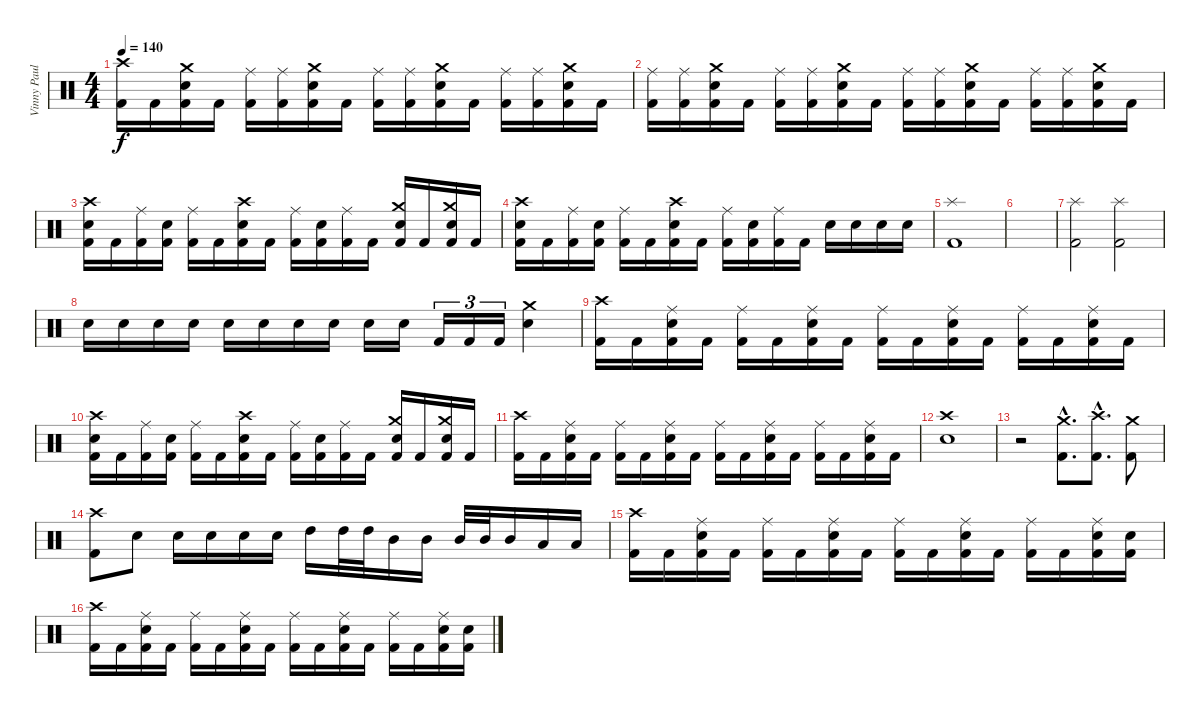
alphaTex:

\track ("Vinny Paul" "Vinny Paul") {instrument percussion}
\staff {score}
\articulation defaults
\ts (4 4)
\tempo 140
\clef neutral
\ks c
("Crash high (hit)" "Kick (hit) 2").16{dy f} "Kick (hit) 2".16 ("Crash medium (hit)" "Snare (hit) 2" "Kick (hit) 2").16 "Kick (hit) 2".16 ("Ride (middle)" "Kick (hit) 2").16 ("Ride (middle)" "Kick (hit) 2").16 ("Crash medium (hit)" "Snare (hit) 2" "Kick (hit) 2").16 "Kick (hit) 2".16 ("Ride (middle)" "Kick (hit) 2").16 ("Ride (middle)" "Kick (hit) 2").16 ("Crash medium (hit)" "Snare (hit) 2" "Kick (hit) 2").16 "Kick (hit) 2".16 ("Ride (middle)" "Kick (hit) 2").16 ("Ride (middle)" "Kick (hit) 2").16 ("Crash medium (hit)" "Snare (hit) 2" "Kick (hit) 2").16 "Kick (hit) 2".16 |
("Ride (middle)" "Kick (hit) 2").16 ("Ride (middle)" "Kick (hit) 2").16 ("Crash medium (hit)" "Snare (hit) 2" "Kick (hit) 2").16 "Kick (hit) 2".16 ("Ride (middle)" "Kick (hit) 2").16 ("Ride (middle)" "Kick (hit) 2").16 ("Crash medium (hit)" "Snare (hit) 2" "Kick (hit) 2").16 "Kick (hit) 2".16 ("Ride (middle)" "Kick (hit) 2").16 ("Ride (middle)" "Kick (hit) 2").16 ("Crash medium (hit)" "Snare (hit) 2" "Kick (hit) 2").16 "Kick (hit) 2".16 ("Ride (middle)" "Kick (hit) 2").16 ("Ride (middle)" "Kick (hit) 2").16 ("Crash medium (hit)" "Snare (hit) 2" "Kick (hit) 2").16 "Kick (hit) 2".16 |
("Crash high (hit)" "Snare (hit) 2" "Kick (hit) 2").16 "Kick (hit) 2".16 ("Ride (middle)" "Kick (hit) 2").16 ("Snare (hit) 2" "Kick (hit) 2").16 ("Ride (middle)" "Kick (hit) 2").16 "Kick (hit) 2".16 ("Crash high (hit)" "Snare (hit) 2" "Kick (hit) 2").16 "Kick (hit) 2".16 ("Ride (middle)" "Kick (hit) 2").16 ("Snare (hit) 2" "Kick (hit) 2").16 ("Ride (middle)" "Kick (hit) 2").16 "Kick (hit) 2".16 ("Crash medium (hit)" "Snare (hit) 2" "Kick (hit) 2").16 "Kick (hit) 2".16 ("Crash medium (hit)" "Snare (hit) 2" "Kick (hit) 2").16 "Kick (hit) 2".16 |
("Crash high (hit)" "Snare (hit) 2" "Kick (hit) 2").16 "Kick (hit) 2".16 ("Ride (middle)" "Kick (hit) 2").16 ("Snare (hit) 2" "Kick (hit) 2").16 ("Ride (middle)" "Kick (hit) 2").16 "Kick (hit) 2".16 ("Crash high (hit)" "Snare (hit) 2" "Kick (hit) 2").16 "Kick (hit) 2".16 ("Ride (middle)" "Kick (hit) 2").16 ("Snare (hit) 2" "Kick (hit) 2").16 ("Ride (middle)" "Kick (hit) 2").16 "Kick (hit) 2".16 "Snare (hit) 2".16 "Snare (hit) 2".16 "Snare (hit) 2".16 "Snare (hit) 2".16 |
("Splash (hit)" "Kick (hit) 2").1 |
|
("Splash (hit)" "Kick (hit) 2").2 ("Splash (hit)" "Kick (hit) 2").2 |
"Snare (hit) 2".16 "Snare (hit) 2".16 "Snare (hit) 2".16 "Snare (hit) 2".16 "Snare (hit) 2".16 "Snare (hit) 2".16 "Snare (hit) 2".16 "Snare (hit) 2".16 "Snare (hit) 2".16 "Snare (hit) 2".16 "Kick (hit) 2".16{tu (3 2)} "Kick (hit) 2".16{tu (3 2)} "Kick (hit) 2".16{tu (3 2)} ("Crash medium (hit)" "Snare (hit) 2").4 |
("Crash high (hit)" "Kick (hit) 2").16 "Kick (hit) 2".16 ("Ride (middle)" "Snare (hit) 2" "Kick (hit) 2").16 "Kick (hit) 2".16 ("Ride (middle)" "Kick (hit) 2").16 "Kick (hit) 2".16 ("Ride (middle)" "Snare (hit) 2" "Kick (hit) 2").16 "Kick (hit) 2".16 ("Ride (middle)" "Kick (hit) 2").16 "Kick (hit) 2".16 ("Ride (middle)" "Snare (hit) 2" "Kick (hit) 2").16 "Kick (hit) 2".16 ("Ride (middle)" "Kick (hit) 2").16 "Kick (hit) 2".16 ("Ride (middle)" "Snare (hit) 2" "Kick (hit) 2").16 "Kick (hit) 2".16 |
("Crash high (hit)" "Snare (hit) 2" "Kick (hit) 2").16 "Kick (hit) 2".16 ("Ride (middle)" "Kick (hit) 2").16 ("Snare (hit) 2" "Kick (hit) 2").16 ("Ride (middle)" "Kick (hit) 2").16 "Kick (hit) 2".16 ("Crash high (hit)" "Snare (hit) 2" "Kick (hit) 2").16 "Kick (hit) 2".16 ("Ride (middle)" "Kick (hit) 2").16 ("Snare (hit) 2" "Kick (hit) 2").16 ("Ride (middle)" "Kick (hit) 2").16 "Kick (hit) 2".16 ("Crash medium (hit)" "Snare (hit) 2" "Kick (hit) 2").16 "Kick (hit) 2".16 ("Crash medium (hit)" "Snare (hit) 2" "Kick (hit) 2").16 "Kick (hit) 2".16 |
("Crash high (hit)" "Kick (hit) 2").16 "Kick (hit) 2".16 ("Ride (middle)" "Snare (hit) 2" "Kick (hit) 2").16 "Kick (hit) 2".16 ("Ride (middle)" "Kick (hit) 2").16 "Kick (hit) 2".16 ("Ride (middle)" "Snare (hit) 2" "Kick (hit) 2").16 "Kick (hit) 2".16 ("Ride (middle)" "Kick (hit) 2").16 "Kick (hit) 2".16 ("Ride (middle)" "Snare (hit) 2" "Kick (hit) 2").16 "Kick (hit) 2".16 ("Ride (middle)" "Kick (hit) 2").16 "Kick (hit) 2".16 ("Ride (middle)" "Snare (hit) 2" "Kick (hit) 2").16 "Kick (hit) 2".16 |
("Crash high (hit)" "Snare (hit) 2").1 |
r.2 ("Crash medium (hit)"{hac} "Kick (hit) 2"{hac}).8{d} ("Crash high (hit)"{hac} "Kick (hit) 2"{hac}).8{d} ("Crash medium (hit)" "Kick (hit) 2").8 |
("Crash high (hit)" "Kick (hit) 2").8 "Snare (hit) 2".8 "Snare (hit) 2".16 "Snare (hit) 2".16 "Snare (hit) 2".16 "Snare (hit) 2".16 "High Tom (hit)".16 "High Tom (hit)".32 "High Tom (hit)".32 "Mid Tom (hit)".16 "Mid Tom (hit)".16 "Mid Tom (hit)".32 "Mid Tom (hit)".32 "Mid Tom (hit)".16 "Low Tom (hit)".16 "Low Tom (hit)".16 |
("Crash high (hit)" "Kick (hit) 2").16 "Kick (hit) 2".16 ("Ride (middle)" "Snare (hit) 2" "Kick (hit) 2").16 "Kick (hit) 2".16 ("Ride (middle)" "Kick (hit) 2").16 "Kick (hit) 2".16 ("Ride (middle)" "Snare (hit) 2" "Kick (hit) 2").16 "Kick (hit) 2".16 ("Ride (middle)" "Kick (hit) 2").16 "Kick (hit) 2".16 ("Ride (middle)" "Snare (hit) 2" "Kick (hit) 2").16 "Kick (hit) 2".16 ("Ride (middle)" "Kick (hit) 2").16 "Kick (hit) 2".16 ("Ride (middle)" "Snare (hit) 2" "Kick (hit) 2").16 ("Snare (hit) 2" "Kick (hit) 2").16 |
("Crash high (hit)" "Kick (hit) 2").16 "Kick (hit) 2".16 ("Ride (middle)" "Snare (hit) 2" "Kick (hit) 2").16 "Kick (hit) 2".16 ("Ride (middle)" "Kick (hit) 2").16 "Kick (hit) 2".16 ("Ride (middle)" "Snare (hit) 2" "Kick (hit) 2").16 "Kick (hit) 2".16 ("Ride (middle)" "Kick (hit) 2").16 "Kick (hit) 2".16 ("Ride (middle)" "Snare (hit) 2" "Kick (hit) 2").16 "Kick (hit) 2".16 ("Ride (middle)" "Kick (hit) 2").16 "Kick (hit) 2".16 ("Ride (middle)" "Snare (hit) 2" "Kick (hit) 2").16 ("Snare (hit) 2" "Kick (hit) 2").16
